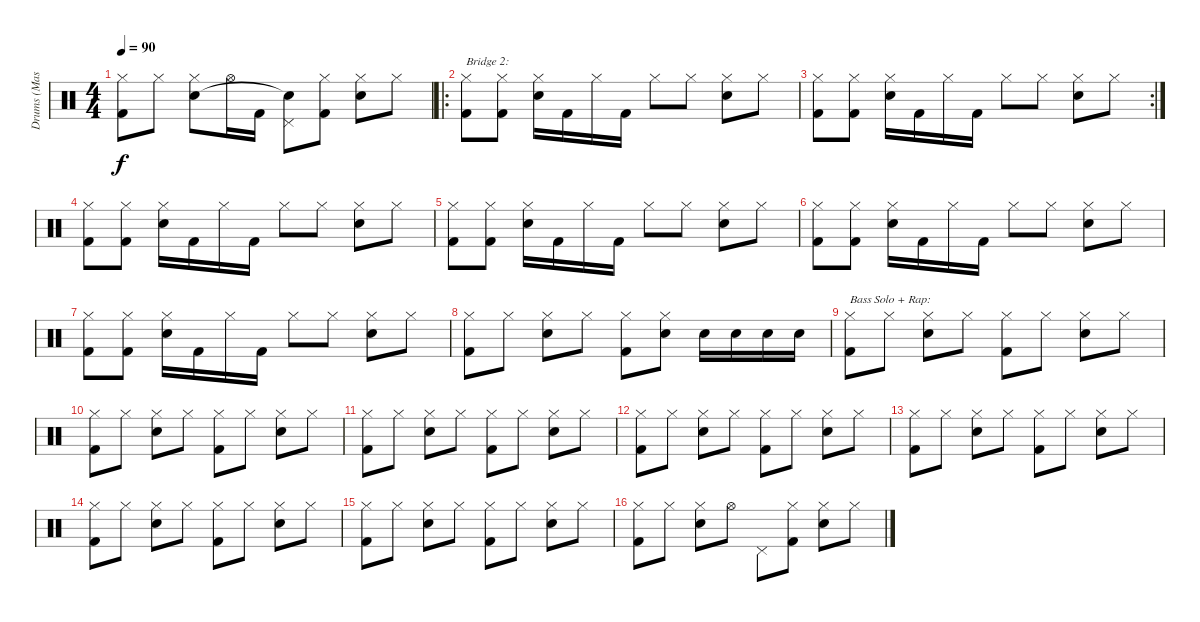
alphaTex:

\track ("Drums (Mason):" "Drums (Mas") {instrument percussion}
\staff {score}
\articulation defaults
\ts (4 4)
\tempo 90
\clef neutral
\ks c
("Hi-Hat (closed)" "Kick (hit) 2").8{dy f} "Hi-Hat (closed)".8 ("Hi-Hat (closed)" "Snare (hit) 2").8 "Hi-Hat (open)".16 "Kick (hit) 2".16 ("Pedal Hi-Hat (hit)" "Snare (hit)"{t}).8 ("Hi-Hat (closed)" "Kick (hit) 2").8 ("Hi-Hat (closed)" "Snare (hit) 2").8 "Hi-Hat (closed)".8 |
\ro
("Hi-Hat (closed)" "Kick (hit) 2").8{txt "Bridge 2:"} ("Hi-Hat (closed)" "Kick (hit) 2").8 ("Hi-Hat (closed)" "Snare (hit) 2").16 "Kick (hit) 2".16 "Hi-Hat (closed)".16 "Kick (hit) 2".16 "Hi-Hat (closed)".8 "Hi-Hat (closed)".8 ("Hi-Hat (closed)" "Snare (hit) 2").8 "Hi-Hat (closed)".8 |
\rc 2
("Hi-Hat (closed)" "Kick (hit) 2").8 ("Hi-Hat (closed)" "Kick (hit) 2").8 ("Hi-Hat (closed)" "Snare (hit) 2").16 "Kick (hit) 2".16 "Hi-Hat (closed)".16 "Kick (hit) 2".16 "Hi-Hat (closed)".8 "Hi-Hat (closed)".8 ("Hi-Hat (closed)" "Snare (hit) 2").8 "Hi-Hat (closed)".8 |
("Hi-Hat (closed)" "Kick (hit) 2").8 ("Hi-Hat (closed)" "Kick (hit) 2").8 ("Hi-Hat (closed)" "Snare (hit) 2").16 "Kick (hit) 2".16 "Hi-Hat (closed)".16 "Kick (hit) 2".16 "Hi-Hat (closed)".8 "Hi-Hat (closed)".8 ("Hi-Hat (closed)" "Snare (hit) 2").8 "Hi-Hat (closed)".8 |
("Hi-Hat (closed)" "Kick (hit) 2").8 ("Hi-Hat (closed)" "Kick (hit) 2").8 ("Hi-Hat (closed)" "Snare (hit) 2").16 "Kick (hit) 2".16 "Hi-Hat (closed)".16 "Kick (hit) 2".16 "Hi-Hat (closed)".8 "Hi-Hat (closed)".8 ("Hi-Hat (closed)" "Snare (hit) 2").8 "Hi-Hat (closed)".8 |
("Hi-Hat (closed)" "Kick (hit) 2").8 ("Hi-Hat (closed)" "Kick (hit) 2").8 ("Hi-Hat (closed)" "Snare (hit) 2").16 "Kick (hit) 2".16 "Hi-Hat (closed)".16 "Kick (hit) 2".16 "Hi-Hat (closed)".8 "Hi-Hat (closed)".8 ("Hi-Hat (closed)" "Snare (hit) 2").8 "Hi-Hat (closed)".8 |
("Hi-Hat (closed)" "Kick (hit) 2").8 ("Hi-Hat (closed)" "Kick (hit) 2").8 ("Hi-Hat (closed)" "Snare (hit) 2").16 "Kick (hit) 2".16 "Hi-Hat (closed)".16 "Kick (hit) 2".16 "Hi-Hat (closed)".8 "Hi-Hat (closed)".8 ("Hi-Hat (closed)" "Snare (hit) 2").8 "Hi-Hat (closed)".8 |
("Hi-Hat (closed)" "Kick (hit) 2").8 "Hi-Hat (closed)".8 ("Hi-Hat (closed)" "Snare (hit) 2").8 "Hi-Hat (closed)".8 ("Hi-Hat (closed)" "Kick (hit) 2").8 ("Hi-Hat (closed)" "Snare (hit) 2").8 "Snare (hit) 2".16 "Snare (hit) 2".16 "Snare (hit) 2".16 "Snare (hit) 2".16 |
("Hi-Hat (closed)" "Kick (hit) 2").8{txt "Bass Solo + Rap:"} "Hi-Hat (closed)".8 ("Hi-Hat (closed)" "Snare (hit) 2").8 "Hi-Hat (closed)".8 ("Hi-Hat (closed)" "Kick (hit) 2").8 "Hi-Hat (closed)".8 ("Hi-Hat (closed)" "Snare (hit) 2").8 "Hi-Hat (closed)".8 |
("Hi-Hat (closed)" "Kick (hit) 2").8 "Hi-Hat (closed)".8 ("Hi-Hat (closed)" "Snare (hit) 2").8 "Hi-Hat (closed)".8 ("Hi-Hat (closed)" "Kick (hit) 2").8 "Hi-Hat (closed)".8 ("Hi-Hat (closed)" "Snare (hit) 2").8 "Hi-Hat (closed)".8 |
("Hi-Hat (closed)" "Kick (hit) 2").8 "Hi-Hat (closed)".8 ("Hi-Hat (closed)" "Snare (hit) 2").8 "Hi-Hat (closed)".8 ("Hi-Hat (closed)" "Kick (hit) 2").8 "Hi-Hat (closed)".8 ("Hi-Hat (closed)" "Snare (hit) 2").8 "Hi-Hat (closed)".8 |
("Hi-Hat (closed)" "Kick (hit) 2").8 "Hi-Hat (closed)".8 ("Hi-Hat (closed)" "Snare (hit) 2").8 "Hi-Hat (closed)".8 ("Hi-Hat (closed)" "Kick (hit) 2").8 "Hi-Hat (closed)".8 ("Hi-Hat (closed)" "Snare (hit) 2").8 "Hi-Hat (closed)".8 |
("Hi-Hat (closed)" "Kick (hit) 2").8 "Hi-Hat (closed)".8 ("Hi-Hat (closed)" "Snare (hit) 2").8 "Hi-Hat (closed)".8 ("Hi-Hat (closed)" "Kick (hit) 2").8 "Hi-Hat (closed)".8 ("Hi-Hat (closed)" "Snare (hit) 2").8 "Hi-Hat (closed)".8 |
("Hi-Hat (closed)" "Kick (hit) 2").8 "Hi-Hat (closed)".8 ("Hi-Hat (closed)" "Snare (hit) 2").8 "Hi-Hat (closed)".8 ("Hi-Hat (closed)" "Kick (hit) 2").8 "Hi-Hat (closed)".8 ("Hi-Hat (closed)" "Snare (hit) 2").8 "Hi-Hat (closed)".8 |
("Hi-Hat (closed)" "Kick (hit) 2").8 "Hi-Hat (closed)".8 ("Hi-Hat (closed)" "Snare (hit) 2").8 "Hi-Hat (closed)".8 ("Hi-Hat (closed)" "Kick (hit) 2").8 "Hi-Hat (closed)".8 ("Hi-Hat (closed)" "Snare (hit) 2").8 "Hi-Hat (closed)".8 |
("Hi-Hat (closed)" "Kick (hit) 2").8 "Hi-Hat (closed)".8 ("Hi-Hat (closed)" "Snare (hit) 2").8 "Hi-Hat (open)".8 "Pedal Hi-Hat (hit)".8 ("Hi-Hat (closed)" "Kick (hit) 2").8 ("Hi-Hat (closed)" "Snare (hit) 2").8 "Hi-Hat (closed)".8
